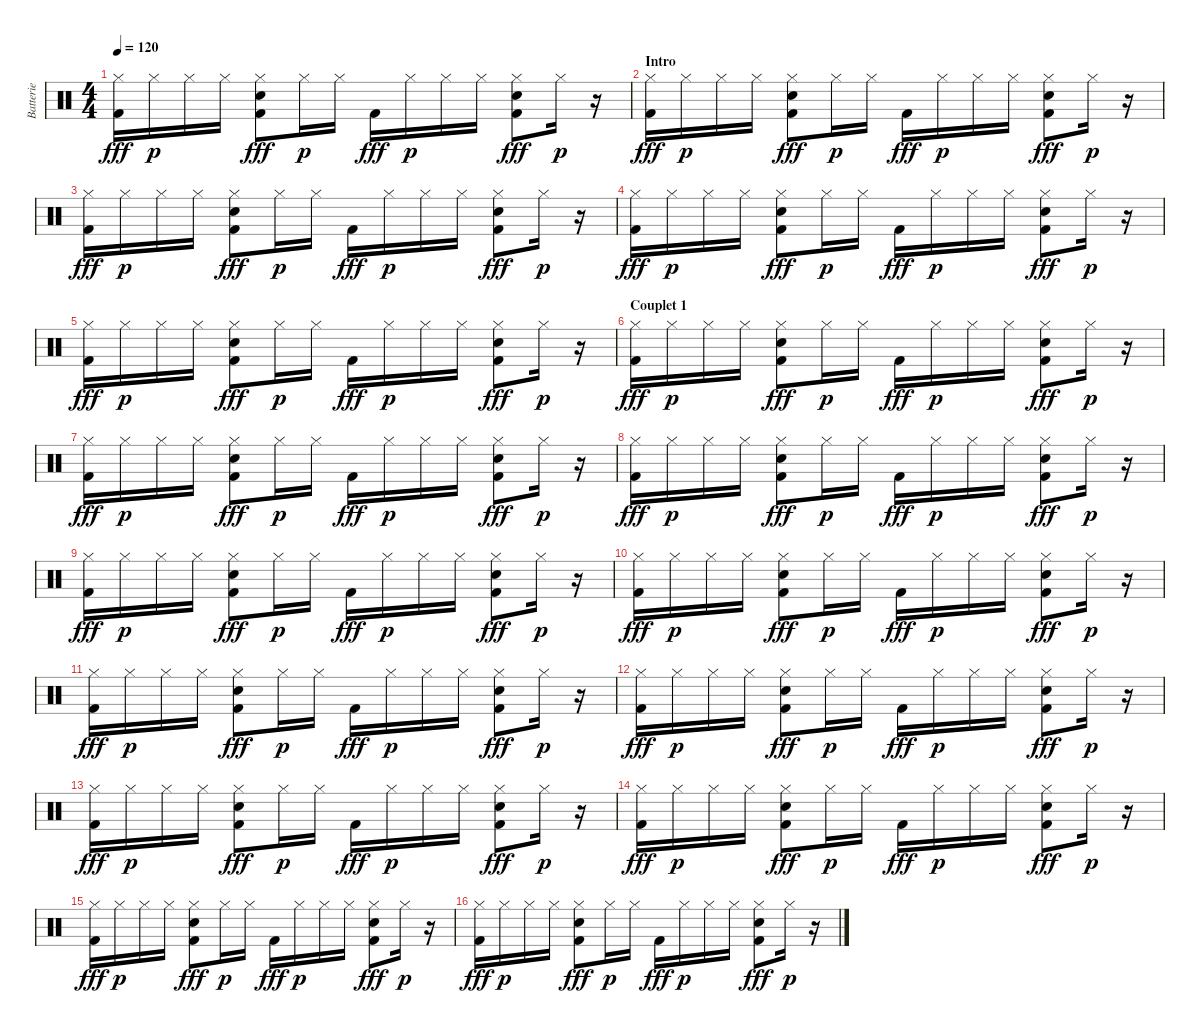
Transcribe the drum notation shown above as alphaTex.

\track ("Batterie" "Batterie") {instrument percussion}
\staff {score}
\articulation defaults
\ts (4 4)
\tempo 120
\clef neutral
\ks c
("Hi-Hat (closed)" "Kick (hit) 2").16{dy fff} "Hi-Hat (closed)".16{dy p} "Hi-Hat (closed)".16 "Hi-Hat (closed)".16 ("Hi-Hat (closed)" "Hand Clap (hit)" "Kick (hit) 2").8{dy fff} "Hi-Hat (closed)".16{dy p} "Hi-Hat (closed)".16 "Kick (hit) 2".16{dy fff} "Hi-Hat (closed)".16{dy p} "Hi-Hat (closed)".16 "Hi-Hat (closed)".16 ("Hi-Hat (closed)" "Hand Clap (hit)" "Kick (hit) 2").8{dy fff} "Hi-Hat (closed)".16{dy p} r.16 |
\section ("" "Intro")
("Hi-Hat (closed)" "Kick (hit) 2").16{dy fff} "Hi-Hat (closed)".16{dy p} "Hi-Hat (closed)".16 "Hi-Hat (closed)".16 ("Hi-Hat (closed)" "Hand Clap (hit)" "Kick (hit) 2").8{dy fff} "Hi-Hat (closed)".16{dy p} "Hi-Hat (closed)".16 "Kick (hit) 2".16{dy fff} "Hi-Hat (closed)".16{dy p} "Hi-Hat (closed)".16 "Hi-Hat (closed)".16 ("Hi-Hat (closed)" "Hand Clap (hit)" "Kick (hit) 2").8{dy fff} "Hi-Hat (closed)".16{dy p} r.16 |
("Hi-Hat (closed)" "Kick (hit) 2").16{dy fff} "Hi-Hat (closed)".16{dy p} "Hi-Hat (closed)".16 "Hi-Hat (closed)".16 ("Hi-Hat (closed)" "Hand Clap (hit)" "Kick (hit) 2").8{dy fff} "Hi-Hat (closed)".16{dy p} "Hi-Hat (closed)".16 "Kick (hit) 2".16{dy fff} "Hi-Hat (closed)".16{dy p} "Hi-Hat (closed)".16 "Hi-Hat (closed)".16 ("Hi-Hat (closed)" "Hand Clap (hit)" "Kick (hit) 2").8{dy fff} "Hi-Hat (closed)".16{dy p} r.16 |
("Hi-Hat (closed)" "Kick (hit) 2").16{dy fff} "Hi-Hat (closed)".16{dy p} "Hi-Hat (closed)".16 "Hi-Hat (closed)".16 ("Hi-Hat (closed)" "Hand Clap (hit)" "Kick (hit) 2").8{dy fff} "Hi-Hat (closed)".16{dy p} "Hi-Hat (closed)".16 "Kick (hit) 2".16{dy fff} "Hi-Hat (closed)".16{dy p} "Hi-Hat (closed)".16 "Hi-Hat (closed)".16 ("Hi-Hat (closed)" "Hand Clap (hit)" "Kick (hit) 2").8{dy fff} "Hi-Hat (closed)".16{dy p} r.16 |
("Hi-Hat (closed)" "Kick (hit) 2").16{dy fff} "Hi-Hat (closed)".16{dy p} "Hi-Hat (closed)".16 "Hi-Hat (closed)".16 ("Hi-Hat (closed)" "Hand Clap (hit)" "Kick (hit) 2").8{dy fff} "Hi-Hat (closed)".16{dy p} "Hi-Hat (closed)".16 "Kick (hit) 2".16{dy fff} "Hi-Hat (closed)".16{dy p} "Hi-Hat (closed)".16 "Hi-Hat (closed)".16 ("Hi-Hat (closed)" "Hand Clap (hit)" "Kick (hit) 2").8{dy fff} "Hi-Hat (closed)".16{dy p} r.16 |
\section ("" "Couplet 1")
("Hi-Hat (closed)" "Kick (hit) 2").16{dy fff} "Hi-Hat (closed)".16{dy p} "Hi-Hat (closed)".16 "Hi-Hat (closed)".16 ("Hi-Hat (closed)" "Hand Clap (hit)" "Kick (hit) 2").8{dy fff} "Hi-Hat (closed)".16{dy p} "Hi-Hat (closed)".16 "Kick (hit) 2".16{dy fff} "Hi-Hat (closed)".16{dy p} "Hi-Hat (closed)".16 "Hi-Hat (closed)".16 ("Hi-Hat (closed)" "Hand Clap (hit)" "Kick (hit) 2").8{dy fff} "Hi-Hat (closed)".16{dy p} r.16 |
("Hi-Hat (closed)" "Kick (hit) 2").16{dy fff} "Hi-Hat (closed)".16{dy p} "Hi-Hat (closed)".16 "Hi-Hat (closed)".16 ("Hi-Hat (closed)" "Hand Clap (hit)" "Kick (hit) 2").8{dy fff} "Hi-Hat (closed)".16{dy p} "Hi-Hat (closed)".16 "Kick (hit) 2".16{dy fff} "Hi-Hat (closed)".16{dy p} "Hi-Hat (closed)".16 "Hi-Hat (closed)".16 ("Hi-Hat (closed)" "Hand Clap (hit)" "Kick (hit) 2").8{dy fff} "Hi-Hat (closed)".16{dy p} r.16 |
("Hi-Hat (closed)" "Kick (hit) 2").16{dy fff} "Hi-Hat (closed)".16{dy p} "Hi-Hat (closed)".16 "Hi-Hat (closed)".16 ("Hi-Hat (closed)" "Hand Clap (hit)" "Kick (hit) 2").8{dy fff} "Hi-Hat (closed)".16{dy p} "Hi-Hat (closed)".16 "Kick (hit) 2".16{dy fff} "Hi-Hat (closed)".16{dy p} "Hi-Hat (closed)".16 "Hi-Hat (closed)".16 ("Hi-Hat (closed)" "Hand Clap (hit)" "Kick (hit) 2").8{dy fff} "Hi-Hat (closed)".16{dy p} r.16 |
("Hi-Hat (closed)" "Kick (hit) 2").16{dy fff} "Hi-Hat (closed)".16{dy p} "Hi-Hat (closed)".16 "Hi-Hat (closed)".16 ("Hi-Hat (closed)" "Hand Clap (hit)" "Kick (hit) 2").8{dy fff} "Hi-Hat (closed)".16{dy p} "Hi-Hat (closed)".16 "Kick (hit) 2".16{dy fff} "Hi-Hat (closed)".16{dy p} "Hi-Hat (closed)".16 "Hi-Hat (closed)".16 ("Hi-Hat (closed)" "Hand Clap (hit)" "Kick (hit) 2").8{dy fff} "Hi-Hat (closed)".16{dy p} r.16 |
("Hi-Hat (closed)" "Kick (hit) 2").16{dy fff} "Hi-Hat (closed)".16{dy p} "Hi-Hat (closed)".16 "Hi-Hat (closed)".16 ("Hi-Hat (closed)" "Hand Clap (hit)" "Kick (hit) 2").8{dy fff} "Hi-Hat (closed)".16{dy p} "Hi-Hat (closed)".16 "Kick (hit) 2".16{dy fff} "Hi-Hat (closed)".16{dy p} "Hi-Hat (closed)".16 "Hi-Hat (closed)".16 ("Hi-Hat (closed)" "Hand Clap (hit)" "Kick (hit) 2").8{dy fff} "Hi-Hat (closed)".16{dy p} r.16 |
("Hi-Hat (closed)" "Kick (hit) 2").16{dy fff} "Hi-Hat (closed)".16{dy p} "Hi-Hat (closed)".16 "Hi-Hat (closed)".16 ("Hi-Hat (closed)" "Hand Clap (hit)" "Kick (hit) 2").8{dy fff} "Hi-Hat (closed)".16{dy p} "Hi-Hat (closed)".16 "Kick (hit) 2".16{dy fff} "Hi-Hat (closed)".16{dy p} "Hi-Hat (closed)".16 "Hi-Hat (closed)".16 ("Hi-Hat (closed)" "Hand Clap (hit)" "Kick (hit) 2").8{dy fff} "Hi-Hat (closed)".16{dy p} r.16 |
("Hi-Hat (closed)" "Kick (hit) 2").16{dy fff} "Hi-Hat (closed)".16{dy p} "Hi-Hat (closed)".16 "Hi-Hat (closed)".16 ("Hi-Hat (closed)" "Hand Clap (hit)" "Kick (hit) 2").8{dy fff} "Hi-Hat (closed)".16{dy p} "Hi-Hat (closed)".16 "Kick (hit) 2".16{dy fff} "Hi-Hat (closed)".16{dy p} "Hi-Hat (closed)".16 "Hi-Hat (closed)".16 ("Hi-Hat (closed)" "Hand Clap (hit)" "Kick (hit) 2").8{dy fff} "Hi-Hat (closed)".16{dy p} r.16 |
("Hi-Hat (closed)" "Kick (hit) 2").16{dy fff} "Hi-Hat (closed)".16{dy p} "Hi-Hat (closed)".16 "Hi-Hat (closed)".16 ("Hi-Hat (closed)" "Hand Clap (hit)" "Kick (hit) 2").8{dy fff} "Hi-Hat (closed)".16{dy p} "Hi-Hat (closed)".16 "Kick (hit) 2".16{dy fff} "Hi-Hat (closed)".16{dy p} "Hi-Hat (closed)".16 "Hi-Hat (closed)".16 ("Hi-Hat (closed)" "Hand Clap (hit)" "Kick (hit) 2").8{dy fff} "Hi-Hat (closed)".16{dy p} r.16 |
("Hi-Hat (closed)" "Kick (hit) 2").16{dy fff} "Hi-Hat (closed)".16{dy p} "Hi-Hat (closed)".16 "Hi-Hat (closed)".16 ("Hi-Hat (closed)" "Hand Clap (hit)" "Kick (hit) 2").8{dy fff} "Hi-Hat (closed)".16{dy p} "Hi-Hat (closed)".16 "Kick (hit) 2".16{dy fff} "Hi-Hat (closed)".16{dy p} "Hi-Hat (closed)".16 "Hi-Hat (closed)".16 ("Hi-Hat (closed)" "Hand Clap (hit)" "Kick (hit) 2").8{dy fff} "Hi-Hat (closed)".16{dy p} r.16 |
("Hi-Hat (closed)" "Kick (hit) 2").16{dy fff} "Hi-Hat (closed)".16{dy p} "Hi-Hat (closed)".16 "Hi-Hat (closed)".16 ("Hi-Hat (closed)" "Hand Clap (hit)" "Kick (hit) 2").8{dy fff} "Hi-Hat (closed)".16{dy p} "Hi-Hat (closed)".16 "Kick (hit) 2".16{dy fff} "Hi-Hat (closed)".16{dy p} "Hi-Hat (closed)".16 "Hi-Hat (closed)".16 ("Hi-Hat (closed)" "Hand Clap (hit)" "Kick (hit) 2").8{dy fff} "Hi-Hat (closed)".16{dy p} r.16 |
("Hi-Hat (closed)" "Kick (hit) 2").16{dy fff} "Hi-Hat (closed)".16{dy p} "Hi-Hat (closed)".16 "Hi-Hat (closed)".16 ("Hi-Hat (closed)" "Hand Clap (hit)" "Kick (hit) 2").8{dy fff} "Hi-Hat (closed)".16{dy p} "Hi-Hat (closed)".16 "Kick (hit) 2".16{dy fff} "Hi-Hat (closed)".16{dy p} "Hi-Hat (closed)".16 "Hi-Hat (closed)".16 ("Hi-Hat (closed)" "Hand Clap (hit)" "Kick (hit) 2").8{dy fff} "Hi-Hat (closed)".16{dy p} r.16
